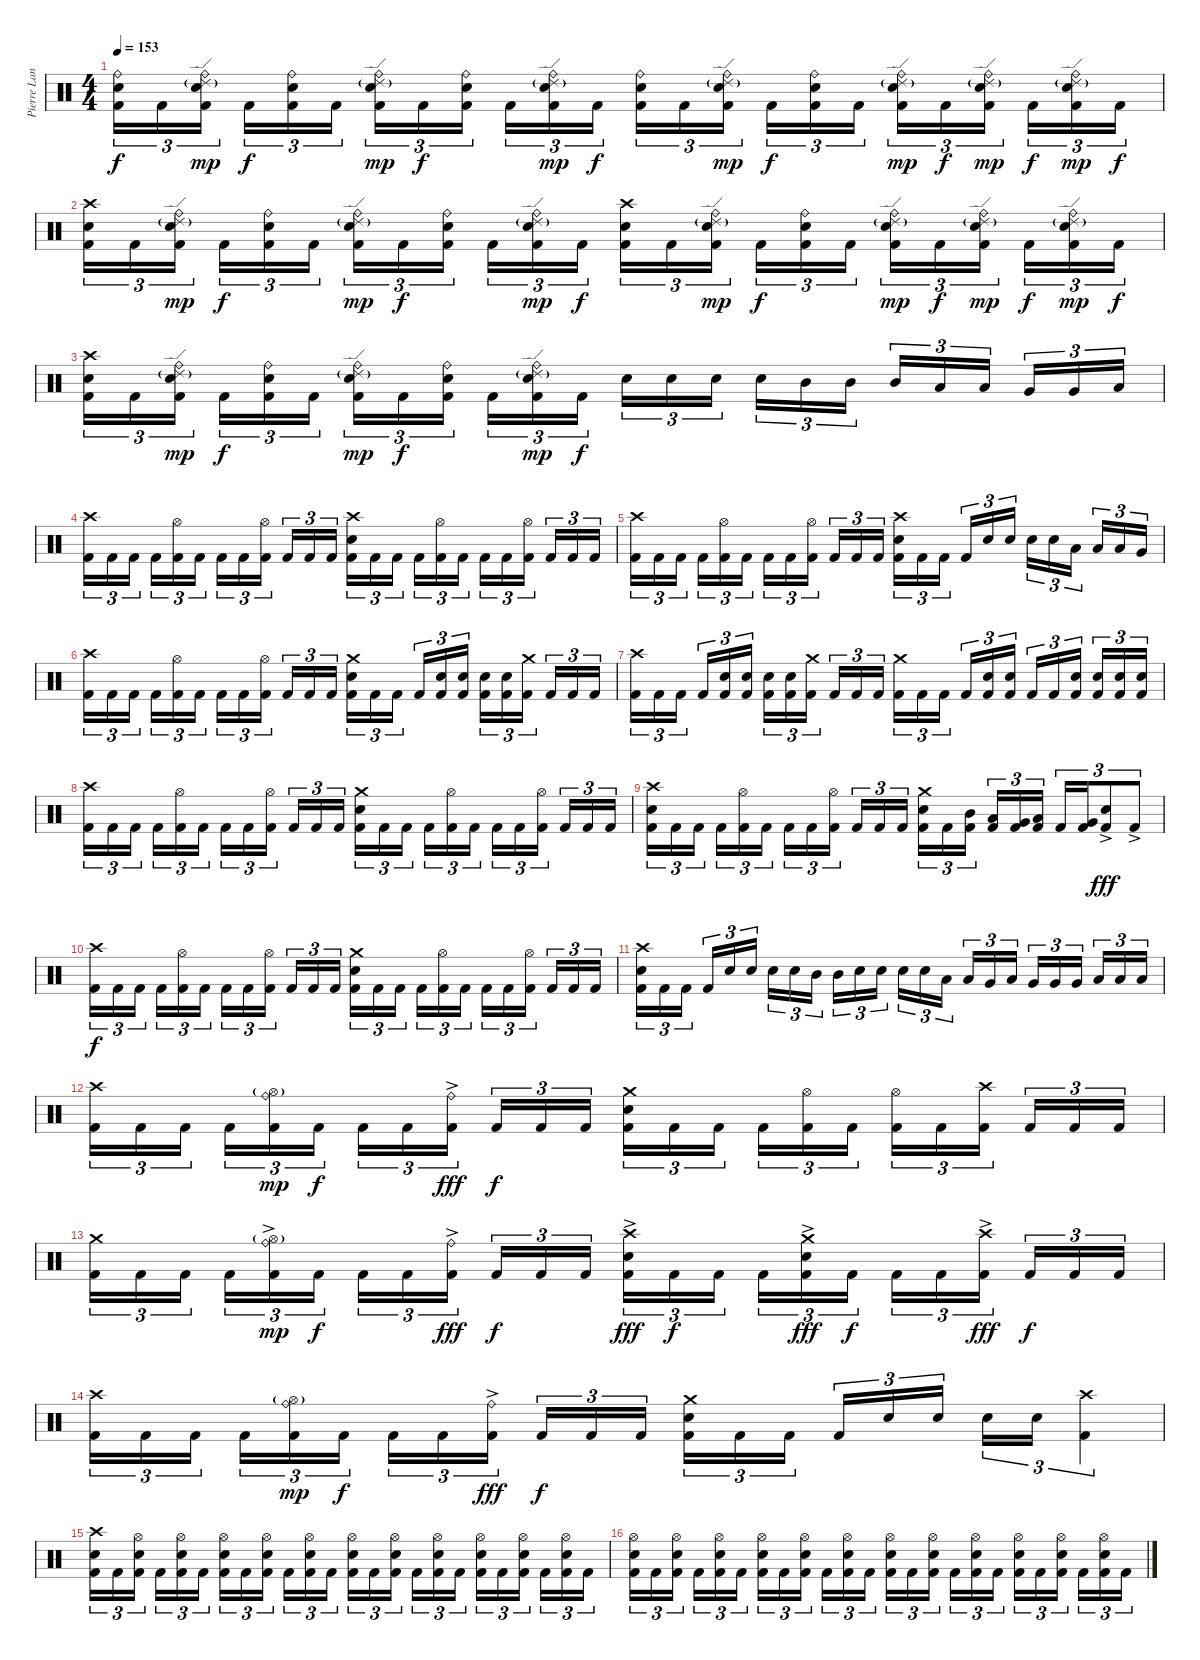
\track ("Pierre Langlois (Drums)" "Pierre Lan") {instrument percussion}
\staff {score}
\articulation defaults
\ts (4 4)
\tempo 153
\clef neutral
\ks c
("Ride (bell)" "Snare (hit) 2" "Kick (hit) 2").16{tu (3 2) dy f} "Kick (hit) 2".16{tu (3 2)} ("Ride (bell)" "Ride (edge) 2"{g} "Snare (hit) 2" "Kick (hit) 2").16{tu (3 2) dy mp} "Kick (hit) 2".16{tu (3 2) dy f} ("Ride (bell)" "Snare (hit) 2" "Kick (hit) 2").16{tu (3 2)} "Kick (hit) 2".16{tu (3 2)} ("Ride (bell)" "Ride (edge) 2"{g} "Snare (hit) 2" "Kick (hit) 2").16{tu (3 2) dy mp} "Kick (hit) 2".16{tu (3 2) dy f} ("Ride (bell)" "Snare (hit) 2" "Kick (hit) 2").16{tu (3 2)} "Kick (hit) 2".16{tu (3 2)} ("Ride (bell)" "Ride (edge) 2"{g} "Snare (hit) 2" "Kick (hit) 2").16{tu (3 2) dy mp} "Kick (hit) 2".16{tu (3 2) dy f} ("Ride (bell)" "Snare (hit) 2" "Kick (hit) 2").16{tu (3 2)} "Kick (hit) 2".16{tu (3 2)} ("Ride (bell)" "Ride (edge) 2"{g} "Snare (hit) 2" "Kick (hit) 2").16{tu (3 2) dy mp} "Kick (hit) 2".16{tu (3 2) dy f} ("Ride (bell)" "Snare (hit) 2" "Kick (hit) 2").16{tu (3 2)} "Kick (hit) 2".16{tu (3 2)} ("Ride (bell)" "Ride (edge) 2"{g} "Snare (hit) 2" "Kick (hit) 2").16{tu (3 2) dy mp} "Kick (hit) 2".16{tu (3 2) dy f} ("Ride (bell)" "Ride (edge) 2"{g} "Snare (hit) 2" "Kick (hit) 2").16{tu (3 2) dy mp} "Kick (hit) 2".16{tu (3 2) dy f} ("Ride (bell)" "Ride (edge) 2"{g} "Snare (hit) 2" "Kick (hit) 2").16{tu (3 2) dy mp} "Kick (hit) 2".16{tu (3 2) dy f} |
("Crash high (hit)" "Snare (hit) 2" "Kick (hit) 2").16{tu (3 2)} "Kick (hit) 2".16{tu (3 2)} ("Ride (bell)" "Ride (edge) 2"{g} "Snare (hit) 2" "Kick (hit) 2").16{tu (3 2) dy mp} "Kick (hit) 2".16{tu (3 2) dy f} ("Ride (bell)" "Snare (hit) 2" "Kick (hit) 2").16{tu (3 2)} "Kick (hit) 2".16{tu (3 2)} ("Ride (bell)" "Ride (edge) 2"{g} "Snare (hit) 2" "Kick (hit) 2").16{tu (3 2) dy mp} "Kick (hit) 2".16{tu (3 2) dy f} ("Ride (bell)" "Snare (hit) 2" "Kick (hit) 2").16{tu (3 2)} "Kick (hit) 2".16{tu (3 2)} ("Ride (bell)" "Ride (edge) 2"{g} "Snare (hit) 2" "Kick (hit) 2").16{tu (3 2) dy mp} "Kick (hit) 2".16{tu (3 2) dy f} ("Crash high (hit)" "Snare (hit) 2" "Kick (hit) 2").16{tu (3 2)} "Kick (hit) 2".16{tu (3 2)} ("Ride (bell)" "Ride (edge) 2"{g} "Snare (hit) 2" "Kick (hit) 2").16{tu (3 2) dy mp} "Kick (hit) 2".16{tu (3 2) dy f} ("Ride (bell)" "Snare (hit) 2" "Kick (hit) 2").16{tu (3 2)} "Kick (hit) 2".16{tu (3 2)} ("Ride (bell)" "Ride (edge) 2"{g} "Snare (hit) 2" "Kick (hit) 2").16{tu (3 2) dy mp} "Kick (hit) 2".16{tu (3 2) dy f} ("Ride (bell)" "Ride (edge) 2"{g} "Snare (hit) 2" "Kick (hit) 2").16{tu (3 2) dy mp} "Kick (hit) 2".16{tu (3 2) dy f} ("Ride (bell)" "Ride (edge) 2"{g} "Snare (hit) 2" "Kick (hit) 2").16{tu (3 2) dy mp} "Kick (hit) 2".16{tu (3 2) dy f} |
("Crash high (hit)" "Snare (hit) 2" "Kick (hit) 2").16{tu (3 2)} "Kick (hit) 2".16{tu (3 2)} ("Ride (bell)" "Ride (edge) 2"{g} "Snare (hit) 2" "Kick (hit) 2").16{tu (3 2) dy mp} "Kick (hit) 2".16{tu (3 2) dy f} ("Ride (bell)" "Snare (hit) 2" "Kick (hit) 2").16{tu (3 2)} "Kick (hit) 2".16{tu (3 2)} ("Ride (bell)" "Ride (edge) 2"{g} "Snare (hit) 2" "Kick (hit) 2").16{tu (3 2) dy mp} "Kick (hit) 2".16{tu (3 2) dy f} ("Ride (bell)" "Snare (hit) 2" "Kick (hit) 2").16{tu (3 2)} "Kick (hit) 2".16{tu (3 2)} ("Ride (bell)" "Ride (edge) 2"{g} "Snare (hit) 2" "Kick (hit) 2").16{tu (3 2) dy mp} "Kick (hit) 2".16{tu (3 2) dy f} "Snare (hit) 2".16{tu (3 2)} "Snare (hit) 2".16{tu (3 2)} "Snare (hit) 2".16{tu (3 2)} "Snare (hit) 2".16{tu (3 2)} "Mid Tom (hit)".16{tu (3 2)} "Mid Tom (hit)".16{tu (3 2)} "Mid Tom (hit)".16{tu (3 2)} "Low Tom (hit)".16{tu (3 2)} "Low Tom (hit)".16{tu (3 2)} "Very Low Tom (hit)".16{tu (3 2)} "Very Low Tom (hit)".16{tu (3 2)} "Low Floor Tom (hit)".16{tu (3 2)} |
("Crash high (hit)" "Kick (hit) 2").16{tu (3 2)} "Kick (hit) 2".16{tu (3 2)} "Kick (hit) 2".16{tu (3 2)} "Kick (hit) 2".16{tu (3 2)} ("Hi-Hat (open)" "Kick (hit) 2").16{tu (3 2)} "Kick (hit) 2".16{tu (3 2)} "Kick (hit) 2".16{tu (3 2)} "Kick (hit) 2".16{tu (3 2)} ("Hi-Hat (open)" "Kick (hit) 2").16{tu (3 2)} "Kick (hit) 2".16{tu (3 2)} "Kick (hit) 2".16{tu (3 2)} "Kick (hit) 2".16{tu (3 2)} ("Snare (hit) 2" "Crash high (hit)" "Kick (hit) 2").16{tu (3 2)} "Kick (hit) 2".16{tu (3 2)} "Kick (hit) 2".16{tu (3 2)} "Kick (hit) 2".16{tu (3 2)} ("Hi-Hat (open)" "Kick (hit) 2").16{tu (3 2)} "Kick (hit) 2".16{tu (3 2)} "Kick (hit) 2".16{tu (3 2)} "Kick (hit) 2".16{tu (3 2)} ("Hi-Hat (open)" "Kick (hit) 2").16{tu (3 2)} "Kick (hit) 2".16{tu (3 2)} "Kick (hit) 2".16{tu (3 2)} "Kick (hit) 2".16{tu (3 2)} |
("Crash high (hit)" "Kick (hit) 2").16{tu (3 2)} "Kick (hit) 2".16{tu (3 2)} "Kick (hit) 2".16{tu (3 2)} "Kick (hit) 2".16{tu (3 2)} ("Hi-Hat (open)" "Kick (hit) 2").16{tu (3 2)} "Kick (hit) 2".16{tu (3 2)} "Kick (hit) 2".16{tu (3 2)} "Kick (hit) 2".16{tu (3 2)} ("Hi-Hat (open)" "Kick (hit) 2").16{tu (3 2)} "Kick (hit) 2".16{tu (3 2)} "Kick (hit) 2".16{tu (3 2)} "Kick (hit) 2".16{tu (3 2)} ("Snare (hit) 2" "Crash high (hit)" "Kick (hit) 2").16{tu (3 2)} "Kick (hit) 2".16{tu (3 2)} "Kick (hit) 2".16{tu (3 2)} "Kick (hit) 2".16{tu (3 2)} "Snare (hit) 2".16{tu (3 2)} "Snare (hit) 2".16{tu (3 2)} "Snare (hit) 2".16{tu (3 2)} "Snare (hit) 2".16{tu (3 2)} "Low Tom (hit)".16{tu (3 2)} "Low Tom (hit)".16{tu (3 2)} "Low Tom (hit)".16{tu (3 2)} "Very Low Tom (hit)".16{tu (3 2)} |
("Crash high (hit)" "Kick (hit) 2").16{tu (3 2)} "Kick (hit) 2".16{tu (3 2)} "Kick (hit) 2".16{tu (3 2)} "Kick (hit) 2".16{tu (3 2)} ("Hi-Hat (open)" "Kick (hit) 2").16{tu (3 2)} "Kick (hit) 2".16{tu (3 2)} "Kick (hit) 2".16{tu (3 2)} "Kick (hit) 2".16{tu (3 2)} ("Hi-Hat (open)" "Kick (hit) 2").16{tu (3 2)} "Kick (hit) 2".16{tu (3 2)} "Kick (hit) 2".16{tu (3 2)} "Kick (hit) 2".16{tu (3 2)} ("Crash medium (hit)" "Snare (hit) 2" "Kick (hit) 2").16{tu (3 2)} "Kick (hit) 2".16{tu (3 2)} "Kick (hit) 2".16{tu (3 2)} "Kick (hit) 2".16{tu (3 2)} ("Snare (hit) 2" "Kick (hit) 2").16{tu (3 2)} ("Snare (hit) 2" "Kick (hit) 2").16{tu (3 2)} ("Snare (hit) 2" "Kick (hit) 2").16{tu (3 2)} ("Snare (hit) 2" "Kick (hit) 2").16{tu (3 2)} ("Crash medium (hit)" "Kick (hit) 2").16{tu (3 2)} "Kick (hit) 2".16{tu (3 2)} "Kick (hit) 2".16{tu (3 2)} "Kick (hit) 2".16{tu (3 2)} |
("Crash high (hit)" "Kick (hit) 2").16{tu (3 2)} "Kick (hit) 2".16{tu (3 2)} "Kick (hit) 2".16{tu (3 2)} "Kick (hit) 2".16{tu (3 2)} ("Snare (hit) 2" "Kick (hit) 2").16{tu (3 2)} ("Snare (hit) 2" "Kick (hit) 2").16{tu (3 2)} ("Snare (hit) 2" "Kick (hit) 2").16{tu (3 2)} ("Snare (hit) 2" "Kick (hit) 2").16{tu (3 2)} ("Crash medium (hit)" "Kick (hit) 2").16{tu (3 2)} "Kick (hit) 2".16{tu (3 2)} "Kick (hit) 2".16{tu (3 2)} "Kick (hit) 2".16{tu (3 2)} ("Crash medium (hit)" "Kick (hit) 2").16{tu (3 2)} "Kick (hit) 2".16{tu (3 2)} "Kick (hit) 2".16{tu (3 2)} "Kick (hit) 2".16{tu (3 2)} ("Snare (hit) 2" "Kick (hit) 2").16{tu (3 2)} ("Snare (hit) 2" "Kick (hit) 2").16{tu (3 2)} "Kick (hit) 2".16{tu (3 2)} "Kick (hit) 2".16{tu (3 2)} ("Snare (hit) 2" "Kick (hit) 2").16{tu (3 2)} ("Snare (hit) 2" "Kick (hit) 2").16{tu (3 2)} ("Snare (hit) 2" "Kick (hit) 2").16{tu (3 2)} ("Snare (hit) 2" "Kick (hit) 2").16{tu (3 2)} |
("Crash high (hit)" "Kick (hit) 2").16{tu (3 2)} "Kick (hit) 2".16{tu (3 2)} "Kick (hit) 2".16{tu (3 2)} "Kick (hit) 2".16{tu (3 2)} ("Hi-Hat (open)" "Kick (hit) 2").16{tu (3 2)} "Kick (hit) 2".16{tu (3 2)} "Kick (hit) 2".16{tu (3 2)} "Kick (hit) 2".16{tu (3 2)} ("Hi-Hat (open)" "Kick (hit) 2").16{tu (3 2)} "Kick (hit) 2".16{tu (3 2)} "Kick (hit) 2".16{tu (3 2)} "Kick (hit) 2".16{tu (3 2)} ("Crash medium (hit)" "Snare (hit) 2" "Kick (hit) 2").16{tu (3 2)} "Kick (hit) 2".16{tu (3 2)} "Kick (hit) 2".16{tu (3 2)} "Kick (hit) 2".16{tu (3 2)} ("Hi-Hat (open)" "Kick (hit) 2").16{tu (3 2)} "Kick (hit) 2".16{tu (3 2)} "Kick (hit) 2".16{tu (3 2)} "Kick (hit) 2".16{tu (3 2)} ("Hi-Hat (open)" "Kick (hit) 2").16{tu (3 2)} "Kick (hit) 2".16{tu (3 2)} "Kick (hit) 2".16{tu (3 2)} "Kick (hit) 2".16{tu (3 2)} |
("Snare (hit) 2" "Crash high (hit)" "Kick (hit) 2").16{tu (3 2)} "Kick (hit) 2".16{tu (3 2)} "Kick (hit) 2".16{tu (3 2)} "Kick (hit) 2".16{tu (3 2)} ("Hi-Hat (open)" "Kick (hit) 2").16{tu (3 2)} "Kick (hit) 2".16{tu (3 2)} "Kick (hit) 2".16{tu (3 2)} "Kick (hit) 2".16{tu (3 2)} ("Hi-Hat (open)" "Kick (hit) 2").16{tu (3 2)} "Kick (hit) 2".16{tu (3 2)} "Kick (hit) 2".16{tu (3 2)} "Kick (hit) 2".16{tu (3 2)} ("Crash medium (hit)" "Snare (hit) 2" "Kick (hit) 2").16{tu (3 2)} "Kick (hit) 2".16{tu (3 2)} ("Mid Tom (hit)" "Kick (hit) 2").16{tu (3 2)} ("Low Tom (hit)" "Kick (hit) 2").16{tu (3 2)} ("Very Low Tom (hit)" "Kick (hit) 2").16{tu (3 2)} ("Low Floor Tom (hit)" "Kick (hit) 2").16{tu (3 2)} "Kick (hit) 2".16{tu (3 2)} ("Very Low Tom (hit)" "Kick (hit) 2").16{tu (3 2)} ("Snare (hit) 2" "Kick (hit) 2"{ac}).8{tu (3 2) dy fff} "Kick (hit) 2"{ac}.8{tu (3 2)} |
("Crash high (hit)" "Kick (hit) 2").16{tu (3 2) dy f} "Kick (hit) 2".16{tu (3 2)} "Kick (hit) 2".16{tu (3 2)} "Kick (hit) 2".16{tu (3 2)} ("Hi-Hat (open)" "Kick (hit) 2").16{tu (3 2)} "Kick (hit) 2".16{tu (3 2)} "Kick (hit) 2".16{tu (3 2)} "Kick (hit) 2".16{tu (3 2)} ("Hi-Hat (open)" "Kick (hit) 2").16{tu (3 2)} "Kick (hit) 2".16{tu (3 2)} "Kick (hit) 2".16{tu (3 2)} "Kick (hit) 2".16{tu (3 2)} ("Crash medium (hit)" "Snare (hit) 2" "Kick (hit) 2").16{tu (3 2)} "Kick (hit) 2".16{tu (3 2)} "Kick (hit) 2".16{tu (3 2)} "Kick (hit) 2".16{tu (3 2)} ("Hi-Hat (open)" "Kick (hit) 2").16{tu (3 2)} "Kick (hit) 2".16{tu (3 2)} "Kick (hit) 2".16{tu (3 2)} "Kick (hit) 2".16{tu (3 2)} ("Hi-Hat (open)" "Kick (hit) 2").16{tu (3 2)} "Kick (hit) 2".16{tu (3 2)} "Kick (hit) 2".16{tu (3 2)} "Kick (hit) 2".16{tu (3 2)} |
("Snare (hit) 2" "Crash high (hit)" "Kick (hit) 2").16{tu (3 2)} "Kick (hit) 2".16{tu (3 2)} "Kick (hit) 2".16{tu (3 2)} "Kick (hit) 2".16{tu (3 2)} "Snare (hit) 2".16{tu (3 2)} "Snare (hit) 2".16{tu (3 2)} "Snare (hit) 2".16{tu (3 2)} "Snare (hit) 2".16{tu (3 2)} "Mid Tom (hit)".16{tu (3 2)} "Mid Tom (hit)".16{tu (3 2)} "Snare (hit) 2".16{tu (3 2)} "Snare (hit) 2".16{tu (3 2)} "Snare (hit) 2".16{tu (3 2)} "Snare (hit) 2".16{tu (3 2)} "Low Tom (hit)".16{tu (3 2)} "Low Tom (hit)".16{tu (3 2)} "Very Low Tom (hit)".16{tu (3 2)} "Low Floor Tom (hit)".16{tu (3 2)} "Very Low Tom (hit)".16{tu (3 2)} "Very Low Tom (hit)".16{tu (3 2)} "Very Low Tom (hit)".16{tu (3 2)} "Low Floor Tom (hit)".16{tu (3 2)} "Low Floor Tom (hit)".16{tu (3 2)} "Low Floor Tom (hit)".16{tu (3 2)} |
("Crash high (hit)" "Kick (hit) 2").16{tu (3 2)} "Kick (hit) 2".16{tu (3 2)} "Kick (hit) 2".16{tu (3 2)} "Kick (hit) 2".16{tu (3 2)} ("Ride (bell)" "Hi-Hat (open)"{g} "Kick (hit) 2").16{tu (3 2) dy mp} "Kick (hit) 2".16{tu (3 2) dy f} "Kick (hit) 2".16{tu (3 2)} "Kick (hit) 2".16{tu (3 2)} ("Ride (bell)"{ac} "Kick (hit) 2").16{tu (3 2) dy fff} "Kick (hit) 2".16{tu (3 2) dy f} "Kick (hit) 2".16{tu (3 2)} "Kick (hit) 2".16{tu (3 2)} ("Crash medium (hit)" "Snare (hit) 2" "Kick (hit) 2").16{tu (3 2)} "Kick (hit) 2".16{tu (3 2)} "Kick (hit) 2".16{tu (3 2)} "Kick (hit) 2".16{tu (3 2)} ("Hi-Hat (open)" "Kick (hit) 2").16{tu (3 2)} "Kick (hit) 2".16{tu (3 2)} ("Hi-Hat (open)" "Kick (hit) 2").16{tu (3 2)} "Kick (hit) 2".16{tu (3 2)} ("Crash high (hit)" "Kick (hit) 2").16{tu (3 2)} "Kick (hit) 2".16{tu (3 2)} "Kick (hit) 2".16{tu (3 2)} "Kick (hit) 2".16{tu (3 2)} |
("Crash medium (hit)" "Kick (hit) 2").16{tu (3 2)} "Kick (hit) 2".16{tu (3 2)} "Kick (hit) 2".16{tu (3 2)} "Kick (hit) 2".16{tu (3 2)} ("Ride (bell)"{ac} "Hi-Hat (open)"{g} "Kick (hit) 2").16{tu (3 2) dy mp} "Kick (hit) 2".16{tu (3 2) dy f} "Kick (hit) 2".16{tu (3 2)} "Kick (hit) 2".16{tu (3 2)} ("Ride (bell)"{ac} "Kick (hit) 2").16{tu (3 2) dy fff} "Kick (hit) 2".16{tu (3 2) dy f} "Kick (hit) 2".16{tu (3 2)} "Kick (hit) 2".16{tu (3 2)} ("Crash high (hit)"{ac} "Snare (hit) 2"{ac} "Kick (hit) 2").16{tu (3 2) dy fff} "Kick (hit) 2".16{tu (3 2) dy f} "Kick (hit) 2".16{tu (3 2)} "Kick (hit) 2".16{tu (3 2)} ("Crash medium (hit)"{ac} "Snare (hit) 2"{ac} "Kick (hit) 2").16{tu (3 2) dy fff} "Kick (hit) 2".16{tu (3 2) dy f} "Kick (hit) 2".16{tu (3 2)} "Kick (hit) 2".16{tu (3 2)} ("Crash high (hit)"{ac} "Kick (hit) 2").16{tu (3 2) dy fff} "Kick (hit) 2".16{tu (3 2) dy f} "Kick (hit) 2".16{tu (3 2)} "Kick (hit) 2".16{tu (3 2)} |
("Crash high (hit)" "Kick (hit) 2").16{tu (3 2)} "Kick (hit) 2".16{tu (3 2)} "Kick (hit) 2".16{tu (3 2)} "Kick (hit) 2".16{tu (3 2)} ("Ride (bell)" "Hi-Hat (open)"{g} "Kick (hit) 2").16{tu (3 2) dy mp} "Kick (hit) 2".16{tu (3 2) dy f} "Kick (hit) 2".16{tu (3 2)} "Kick (hit) 2".16{tu (3 2)} ("Ride (bell)"{ac} "Kick (hit) 2").16{tu (3 2) dy fff} "Kick (hit) 2".16{tu (3 2) dy f} "Kick (hit) 2".16{tu (3 2)} "Kick (hit) 2".16{tu (3 2)} ("Crash medium (hit)" "Snare (hit) 2" "Kick (hit) 2").16{tu (3 2)} "Kick (hit) 2".16{tu (3 2)} "Kick (hit) 2".16{tu (3 2)} "Kick (hit) 2".16{tu (3 2)} "Snare (hit) 2".16{tu (3 2)} "Snare (hit) 2".16{tu (3 2)} "Snare (hit) 2".16{tu (3 2)} "Snare (hit) 2".16{tu (3 2)} ("Crash high (hit)" "Kick (hit) 2").4{tu (3 2)} |
("Crash high (hit)" "Snare (hit) 2" "Kick (hit) 2").16{tu (3 2)} "Kick (hit) 2".16{tu (3 2)} ("Hi-Hat (open)" "Snare (hit) 2" "Kick (hit) 2").16{tu (3 2)} "Kick (hit) 2".16{tu (3 2)} ("Hi-Hat (open)" "Snare (hit) 2" "Kick (hit) 2").16{tu (3 2)} "Kick (hit) 2".16{tu (3 2)} ("Hi-Hat (open)" "Snare (hit) 2" "Kick (hit) 2").16{tu (3 2)} "Kick (hit) 2".16{tu (3 2)} ("Hi-Hat (open)" "Snare (hit) 2" "Kick (hit) 2").16{tu (3 2)} "Kick (hit) 2".16{tu (3 2)} ("Hi-Hat (open)" "Snare (hit) 2" "Kick (hit) 2").16{tu (3 2)} "Kick (hit) 2".16{tu (3 2)} ("Hi-Hat (open)" "Snare (hit) 2" "Kick (hit) 2").16{tu (3 2)} "Kick (hit) 2".16{tu (3 2)} ("Hi-Hat (open)" "Snare (hit) 2" "Kick (hit) 2").16{tu (3 2)} "Kick (hit) 2".16{tu (3 2)} ("Hi-Hat (open)" "Snare (hit) 2" "Kick (hit) 2").16{tu (3 2)} "Kick (hit) 2".16{tu (3 2)} ("Hi-Hat (open)" "Snare (hit) 2" "Kick (hit) 2").16{tu (3 2)} "Kick (hit) 2".16{tu (3 2)} ("Hi-Hat (open)" "Snare (hit) 2" "Kick (hit) 2").16{tu (3 2)} "Kick (hit) 2".16{tu (3 2)} ("Hi-Hat (open)" "Snare (hit) 2" "Kick (hit) 2").16{tu (3 2)} "Kick (hit) 2".16{tu (3 2)} |
("Hi-Hat (open)" "Snare (hit) 2" "Kick (hit) 2").16{tu (3 2)} "Kick (hit) 2".16{tu (3 2)} ("Hi-Hat (open)" "Snare (hit) 2" "Kick (hit) 2").16{tu (3 2)} "Kick (hit) 2".16{tu (3 2)} ("Hi-Hat (open)" "Snare (hit) 2" "Kick (hit) 2").16{tu (3 2)} "Kick (hit) 2".16{tu (3 2)} ("Hi-Hat (open)" "Snare (hit) 2" "Kick (hit) 2").16{tu (3 2)} "Kick (hit) 2".16{tu (3 2)} ("Hi-Hat (open)" "Snare (hit) 2" "Kick (hit) 2").16{tu (3 2)} "Kick (hit) 2".16{tu (3 2)} ("Hi-Hat (open)" "Snare (hit) 2" "Kick (hit) 2").16{tu (3 2)} "Kick (hit) 2".16{tu (3 2)} ("Hi-Hat (open)" "Snare (hit) 2" "Kick (hit) 2").16{tu (3 2)} "Kick (hit) 2".16{tu (3 2)} ("Hi-Hat (open)" "Snare (hit) 2" "Kick (hit) 2").16{tu (3 2)} "Kick (hit) 2".16{tu (3 2)} ("Hi-Hat (open)" "Snare (hit) 2" "Kick (hit) 2").16{tu (3 2)} "Kick (hit) 2".16{tu (3 2)} ("Hi-Hat (open)" "Snare (hit) 2" "Kick (hit) 2").16{tu (3 2)} "Kick (hit) 2".16{tu (3 2)} ("Hi-Hat (open)" "Snare (hit) 2" "Kick (hit) 2").16{tu (3 2)} "Kick (hit) 2".16{tu (3 2)} ("Hi-Hat (open)" "Snare (hit) 2" "Kick (hit) 2").16{tu (3 2)} "Kick (hit) 2".16{tu (3 2)}
